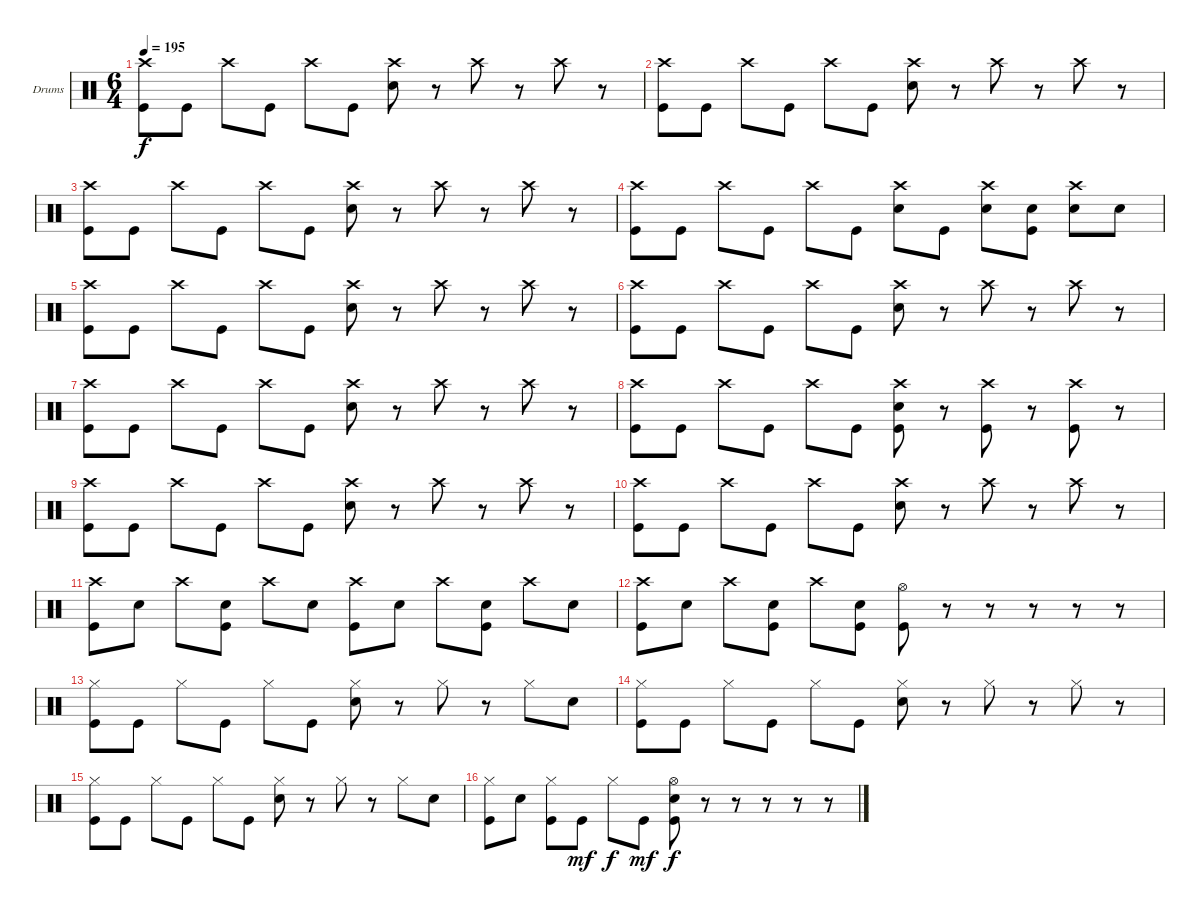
\bracketExtendMode groupsimilarinstruments
\firstSystemTrackNameOrientation horizontal
\otherSystemsTrackNameOrientation horizontal
\track ("Drumkit" "Drums") {instrument percussion}
\staff {score}
\articulation defaults
\ts (6 4)
\tempo 195
\clef neutral
\ks c
("Crash high (hit)" "Kick (hit)").8{dy f} "Kick (hit)".8 "Crash high (hit)".8 "Kick (hit)".8 "Crash high (hit)".8 "Kick (hit)".8 ("Crash high (hit)" "Snare (hit) 2").8 r.8 "Crash high (hit)".8 r.8 "Crash high (hit)".8 r.8 |
("Crash high (hit)" "Kick (hit)").8 "Kick (hit)".8 "Crash high (hit)".8 "Kick (hit)".8 "Crash high (hit)".8 "Kick (hit)".8 ("Crash high (hit)" "Snare (hit) 2").8 r.8 "Crash high (hit)".8 r.8 "Crash high (hit)".8 r.8 |
("Crash high (hit)" "Kick (hit)").8 "Kick (hit)".8 "Crash high (hit)".8 "Kick (hit)".8 "Crash high (hit)".8 "Kick (hit)".8 ("Crash high (hit)" "Snare (hit) 2").8 r.8 "Crash high (hit)".8 r.8 "Crash high (hit)".8 r.8 |
("Crash high (hit)" "Kick (hit)").8 "Kick (hit)".8 "Crash high (hit)".8 "Kick (hit)".8 "Crash high (hit)".8 "Kick (hit)".8 ("Crash high (hit)" "Snare (hit) 2").8 "Kick (hit)".8 ("Crash high (hit)" "Snare (hit) 2").8 ("Snare (hit) 2" "Kick (hit)").8 ("Crash high (hit)" "Snare (hit) 2").8 "Snare (hit) 2".8 |
("Crash high (hit)" "Kick (hit)").8 "Kick (hit)".8 "Crash high (hit)".8 "Kick (hit)".8 "Crash high (hit)".8 "Kick (hit)".8 ("Crash high (hit)" "Snare (hit) 2").8 r.8 "Crash high (hit)".8 r.8 "Crash high (hit)".8 r.8 |
("Crash high (hit)" "Kick (hit)").8 "Kick (hit)".8 "Crash high (hit)".8 "Kick (hit)".8 "Crash high (hit)".8 "Kick (hit)".8 ("Crash high (hit)" "Snare (hit) 2").8 r.8 "Crash high (hit)".8 r.8 "Crash high (hit)".8 r.8 |
("Crash high (hit)" "Kick (hit)").8 "Kick (hit)".8 "Crash high (hit)".8 "Kick (hit)".8 "Crash high (hit)".8 "Kick (hit)".8 ("Crash high (hit)" "Snare (hit) 2").8 r.8 "Crash high (hit)".8 r.8 "Crash high (hit)".8 r.8 |
("Crash high (hit)" "Kick (hit)").8 "Kick (hit)".8 "Crash high (hit)".8 "Kick (hit)".8 "Crash high (hit)".8 "Kick (hit)".8 ("Crash high (hit)" "Snare (hit) 2" "Kick (hit)").8 r.8 ("Crash high (hit)" "Kick (hit)").8 r.8 ("Crash high (hit)" "Kick (hit)").8 r.8 |
("Crash high (hit)" "Kick (hit)").8 "Kick (hit)".8 "Crash high (hit)".8 "Kick (hit)".8 "Crash high (hit)".8 "Kick (hit)".8 ("Crash high (hit)" "Snare (hit) 2").8 r.8 "Crash high (hit)".8 r.8 "Crash high (hit)".8 r.8 |
("Crash high (hit)" "Kick (hit)").8 "Kick (hit)".8 "Crash high (hit)".8 "Kick (hit)".8 "Crash high (hit)".8 "Kick (hit)".8 ("Crash high (hit)" "Snare (hit) 2").8 r.8 "Crash high (hit)".8 r.8 "Crash high (hit)".8 r.8 |
("Crash high (hit)" "Kick (hit)").8 "Snare (hit) 2".8 "Crash high (hit)".8 ("Snare (hit) 2" "Kick (hit)").8 "Crash high (hit)".8 "Snare (hit) 2".8 ("Crash high (hit)" "Kick (hit)").8 "Snare (hit) 2".8 "Crash high (hit)".8 ("Snare (hit) 2" "Kick (hit)").8 "Crash high (hit)".8 "Snare (hit) 2".8 |
("Crash high (hit)" "Kick (hit)").8 "Snare (hit) 2".8 "Crash high (hit)".8 ("Snare (hit) 2" "Kick (hit)").8 "Crash high (hit)".8 ("Snare (hit) 2" "Kick (hit)").8 ("Hi-Hat (open)" "Kick (hit)").8 r.8 r.8 r.8 r.8 r.8 |
("Hi-Hat (closed)" "Kick (hit)").8 "Kick (hit)".8 "Hi-Hat (closed)".8 "Kick (hit)".8 "Hi-Hat (closed)".8 "Kick (hit)".8 ("Hi-Hat (closed)" "Snare (hit) 2").8 r.8 "Hi-Hat (closed)".8 r.8 "Hi-Hat (closed)".8 "Snare (hit) 2".8 |
("Hi-Hat (closed)" "Kick (hit)").8 "Kick (hit)".8 "Hi-Hat (closed)".8 "Kick (hit)".8 "Hi-Hat (closed)".8 "Kick (hit)".8 ("Hi-Hat (closed)" "Snare (hit) 2").8 r.8 "Hi-Hat (closed)".8 r.8 "Hi-Hat (closed)".8 r.8 |
("Hi-Hat (closed)" "Kick (hit)").8 "Kick (hit)".8 "Hi-Hat (closed)".8 "Kick (hit)".8 "Hi-Hat (closed)".8 "Kick (hit)".8 ("Hi-Hat (closed)" "Snare (hit) 2").8 r.8 "Hi-Hat (closed)".8 r.8 "Hi-Hat (closed)".8 "Snare (hit) 2".8 |
("Hi-Hat (closed)" "Kick (hit)").8 "Snare (hit) 2".8 ("Hi-Hat (closed)" "Kick (hit)").8 "Kick (hit)".8{dy mf} "Hi-Hat (closed)".8{dy f} "Kick (hit)".8{dy mf} ("Hi-Hat (open)" "Snare (hit) 2" "Kick (hit)").8{dy f} r.8 r.8 r.8 r.8 r.8
